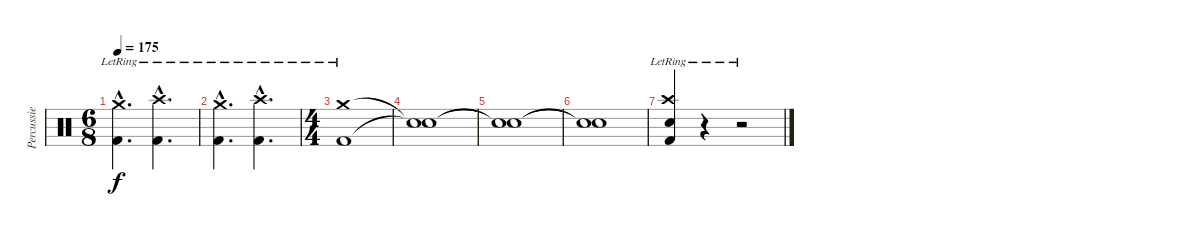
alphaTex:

\track ("Percussie" "Percussie") {instrument percussion}
\staff {score}
\articulation defaults
\ts (6 8)
\tempo 175
\clef neutral
\ks c
("Crash medium (hit)"{hac lr} "Kick (hit) 2"{hac}).4{d dy f} ("Crash high (hit)"{hac lr} "Kick (hit) 2"{hac}).4{d} |
("Crash medium (hit)"{hac lr} "Kick (hit) 2"{hac}).4{d} ("Crash high (hit)"{hac lr} "Kick (hit) 2"{hac}).4{d} |
\ts (4 4)
("Crash medium (hit)"{lr} "Kick (hit) 2").1 |
("Snare (hit)"{t} "Snare (hit)"{t}).1 |
("Snare (hit)"{t} "Snare (hit)"{t}).1 |
("Snare (hit)"{t} "Snare (hit)"{t}).1 |
("Crash high (hit)"{lr} "Snare (hit) 2" "Kick (hit) 2").4 r.4 r.2
